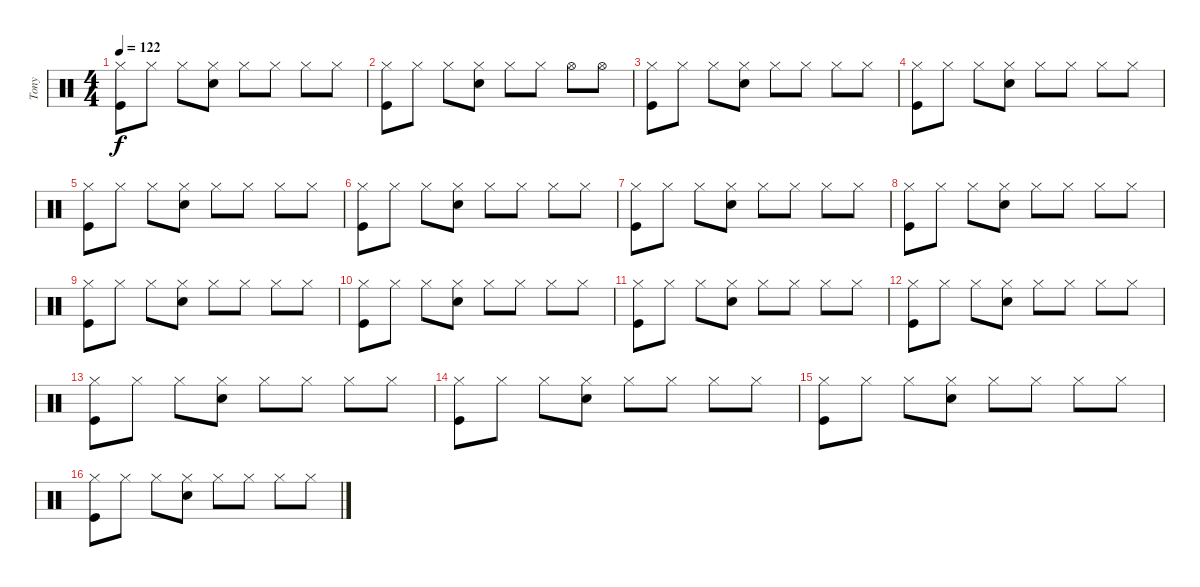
\track ("Tony" "Tony") {instrument percussion}
\staff {score}
\articulation defaults
\ts (4 4)
\tempo 122
\clef neutral
\ks c
("Hi-Hat (closed)" "Kick (hit)").8{dy f} "Hi-Hat (closed)".8 "Hi-Hat (closed)".8 ("Hi-Hat (closed)" "Snare (hit) 2").8 "Hi-Hat (closed)".8 "Hi-Hat (closed)".8 "Hi-Hat (closed)".8 "Hi-Hat (closed)".8 |
("Hi-Hat (closed)" "Kick (hit)").8 "Hi-Hat (closed)".8 "Hi-Hat (closed)".8 ("Hi-Hat (closed)" "Snare (hit) 2").8 "Hi-Hat (closed)".8 "Hi-Hat (closed)".8 "Hi-Hat (open)".8 "Hi-Hat (open)".8 |
("Hi-Hat (closed)" "Kick (hit)").8 "Hi-Hat (closed)".8 "Hi-Hat (closed)".8 ("Hi-Hat (closed)" "Snare (hit) 2").8 "Hi-Hat (closed)".8 "Hi-Hat (closed)".8 "Hi-Hat (closed)".8 "Hi-Hat (closed)".8 |
("Hi-Hat (closed)" "Kick (hit)").8 "Hi-Hat (closed)".8 "Hi-Hat (closed)".8 ("Hi-Hat (closed)" "Snare (hit) 2").8 "Hi-Hat (closed)".8 "Hi-Hat (closed)".8 "Hi-Hat (closed)".8 "Hi-Hat (closed)".8 |
("Hi-Hat (closed)" "Kick (hit)").8 "Hi-Hat (closed)".8 "Hi-Hat (closed)".8 ("Hi-Hat (closed)" "Snare (hit) 2").8 "Hi-Hat (closed)".8 "Hi-Hat (closed)".8 "Hi-Hat (closed)".8 "Hi-Hat (closed)".8 |
("Hi-Hat (closed)" "Kick (hit)").8 "Hi-Hat (closed)".8 "Hi-Hat (closed)".8 ("Hi-Hat (closed)" "Snare (hit) 2").8 "Hi-Hat (closed)".8 "Hi-Hat (closed)".8 "Hi-Hat (closed)".8 "Hi-Hat (closed)".8 |
("Hi-Hat (closed)" "Kick (hit)").8 "Hi-Hat (closed)".8 "Hi-Hat (closed)".8 ("Hi-Hat (closed)" "Snare (hit) 2").8 "Hi-Hat (closed)".8 "Hi-Hat (closed)".8 "Hi-Hat (closed)".8 "Hi-Hat (closed)".8 |
("Hi-Hat (closed)" "Kick (hit)").8 "Hi-Hat (closed)".8 "Hi-Hat (closed)".8 ("Hi-Hat (closed)" "Snare (hit) 2").8 "Hi-Hat (closed)".8 "Hi-Hat (closed)".8 "Hi-Hat (closed)".8 "Hi-Hat (closed)".8 |
("Hi-Hat (closed)" "Kick (hit)").8 "Hi-Hat (closed)".8 "Hi-Hat (closed)".8 ("Hi-Hat (closed)" "Snare (hit) 2").8 "Hi-Hat (closed)".8 "Hi-Hat (closed)".8 "Hi-Hat (closed)".8 "Hi-Hat (closed)".8 |
("Hi-Hat (closed)" "Kick (hit)").8 "Hi-Hat (closed)".8 "Hi-Hat (closed)".8 ("Hi-Hat (closed)" "Snare (hit) 2").8 "Hi-Hat (closed)".8 "Hi-Hat (closed)".8 "Hi-Hat (closed)".8 "Hi-Hat (closed)".8 |
("Hi-Hat (closed)" "Kick (hit)").8 "Hi-Hat (closed)".8 "Hi-Hat (closed)".8 ("Hi-Hat (closed)" "Snare (hit) 2").8 "Hi-Hat (closed)".8 "Hi-Hat (closed)".8 "Hi-Hat (closed)".8 "Hi-Hat (closed)".8 |
("Hi-Hat (closed)" "Kick (hit)").8 "Hi-Hat (closed)".8 "Hi-Hat (closed)".8 ("Hi-Hat (closed)" "Snare (hit) 2").8 "Hi-Hat (closed)".8 "Hi-Hat (closed)".8 "Hi-Hat (closed)".8 "Hi-Hat (closed)".8 |
("Hi-Hat (closed)" "Kick (hit)").8 "Hi-Hat (closed)".8 "Hi-Hat (closed)".8 ("Hi-Hat (closed)" "Snare (hit) 2").8 "Hi-Hat (closed)".8 "Hi-Hat (closed)".8 "Hi-Hat (closed)".8 "Hi-Hat (closed)".8 |
("Hi-Hat (closed)" "Kick (hit)").8 "Hi-Hat (closed)".8 "Hi-Hat (closed)".8 ("Hi-Hat (closed)" "Snare (hit) 2").8 "Hi-Hat (closed)".8 "Hi-Hat (closed)".8 "Hi-Hat (closed)".8 "Hi-Hat (closed)".8 |
("Hi-Hat (closed)" "Kick (hit)").8 "Hi-Hat (closed)".8 "Hi-Hat (closed)".8 ("Hi-Hat (closed)" "Snare (hit) 2").8 "Hi-Hat (closed)".8 "Hi-Hat (closed)".8 "Hi-Hat (closed)".8 "Hi-Hat (closed)".8 |
("Hi-Hat (closed)" "Kick (hit)").8 "Hi-Hat (closed)".8 "Hi-Hat (closed)".8 ("Hi-Hat (closed)" "Snare (hit) 2").8 "Hi-Hat (closed)".8 "Hi-Hat (closed)".8 "Hi-Hat (closed)".8 "Hi-Hat (closed)".8
